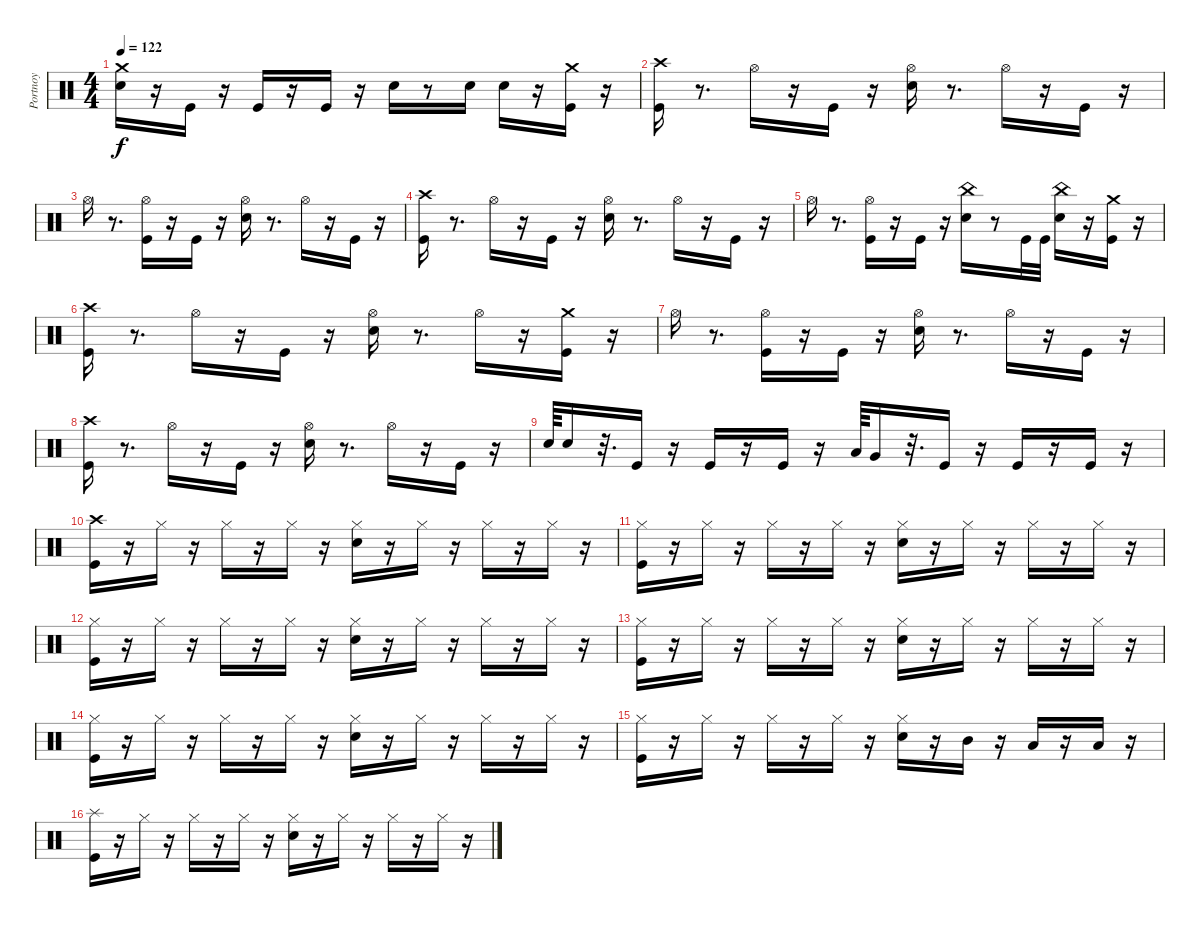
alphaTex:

\track ("Portnoy" "Portnoy") {instrument percussion}
\staff {score}
\articulation defaults
\ts (4 4)
\tempo 122
\clef neutral
\ks c
("Metronome (bell)" "Crash medium (hit)").16{dy f} r.16 "Kick (hit)".16 r.16 "Kick (hit)".16 r.16 "Kick (hit)".16 r.16 "Metronome (bell)".16 r.8 "Metronome (bell)".16 "Metronome (bell)".16 r.16 ("Crash medium (hit)" "Kick (hit)").16 r.16 |
("Kick (hit)" "Crash high (hit)").16 r.8{d} "Hi-Hat (open)".16 r.16 "Kick (hit)".16 r.16 ("Hi-Hat (open)" "Metronome (bell)").16 r.8{d} "Hi-Hat (open)".16 r.16 "Kick (hit)".16 r.16 |
"Hi-Hat (open)".16 r.8{d} ("Kick (hit)" "Hi-Hat (open)").16 r.16 "Kick (hit)".16 r.16 ("Metronome (bell)" "Hi-Hat (open)").16 r.8{d} "Hi-Hat (open)".16 r.16 "Kick (hit)".16 r.16 |
("Crash high (hit)" "Kick (hit)").16 r.8{d} "Hi-Hat (open)".16 r.16 "Kick (hit)".16 r.16 ("Metronome (bell)" "Hi-Hat (open)").16 r.8{d} "Hi-Hat (open)".16 r.16 "Kick (hit)".16 r.16 |
"Hi-Hat (open)".16 r.8{d} ("Kick (hit)" "Hi-Hat (open)").16 r.16 "Kick (hit)".16 r.16 ("Metronome (bell)" "China (hit)").16 r.8 "Kick (hit)".32 "Kick (hit)".32 ("China (hit)" "Metronome (bell)").16 r.16 ("Crash medium (hit)" "Kick (hit)").16 r.16 |
("Crash high (hit)" "Kick (hit)").16 r.8{d} "Hi-Hat (open)".16 r.16 "Kick (hit)".16 r.16 ("Hi-Hat (open)" "Metronome (bell)").16 r.8{d} "Hi-Hat (open)".16 r.16 ("Crash medium (hit)" "Kick (hit)").16 r.16 |
"Hi-Hat (open)".16 r.8{d} ("Hi-Hat (open)" "Kick (hit)").16 r.16 "Kick (hit)".16 r.16 ("Hi-Hat (open)" "Metronome (bell)").16 r.8{d} "Hi-Hat (open)".16 r.16 "Kick (hit)".16 r.16 |
("Kick (hit)" "Crash high (hit)").16 r.8{d} "Hi-Hat (open)".16 r.16 "Kick (hit)".16 r.16 ("Hi-Hat (open)" "Metronome (bell)").16 r.8{d} "Hi-Hat (open)".16 r.16 "Kick (hit)".16 r.16 |
"Metronome (bell)".64 "Metronome (bell)".16 r.32{d} "Kick (hit)".16 r.16 "Kick (hit)".16 r.16 "Kick (hit)".16 r.16 "Low Tom (hit)".64 "Very Low Tom (hit)".16 r.32{d} "Kick (hit)".16 r.16 "Kick (hit)".16 r.16 "Kick (hit)".16 r.16 |
("Crash high (hit)" "Kick (hit)").16 r.16 "Hi-Hat (closed)".16 r.16 "Hi-Hat (closed)".16 r.16 "Hi-Hat (closed)".16 r.16 ("Metronome (bell)" "Hi-Hat (closed)").16 r.16 "Hi-Hat (closed)".16 r.16 "Hi-Hat (closed)".16 r.16 "Hi-Hat (closed)".16 r.16 |
("Hi-Hat (closed)" "Kick (hit)").16 r.16 "Hi-Hat (closed)".16 r.16 "Hi-Hat (closed)".16 r.16 "Hi-Hat (closed)".16 r.16 ("Metronome (bell)" "Hi-Hat (closed)").16 r.16 "Hi-Hat (closed)".16 r.16 "Hi-Hat (closed)".16 r.16 "Hi-Hat (closed)".16 r.16 |
("Hi-Hat (closed)" "Kick (hit)").16 r.16 "Hi-Hat (closed)".16 r.16 "Hi-Hat (closed)".16 r.16 "Hi-Hat (closed)".16 r.16 ("Metronome (bell)" "Hi-Hat (closed)").16 r.16 "Hi-Hat (closed)".16 r.16 "Hi-Hat (closed)".16 r.16 "Hi-Hat (closed)".16 r.16 |
("Hi-Hat (closed)" "Kick (hit)").16 r.16 "Hi-Hat (closed)".16 r.16 "Hi-Hat (closed)".16 r.16 "Hi-Hat (closed)".16 r.16 ("Metronome (bell)" "Hi-Hat (closed)").16 r.16 "Hi-Hat (closed)".16 r.16 "Hi-Hat (closed)".16 r.16 "Hi-Hat (closed)".16 r.16 |
("Hi-Hat (closed)" "Kick (hit)").16 r.16 "Hi-Hat (closed)".16 r.16 "Hi-Hat (closed)".16 r.16 "Hi-Hat (closed)".16 r.16 ("Metronome (bell)" "Hi-Hat (closed)").16 r.16 "Hi-Hat (closed)".16 r.16 "Hi-Hat (closed)".16 r.16 "Hi-Hat (closed)".16 r.16 |
("Hi-Hat (closed)" "Kick (hit)").16 r.16 "Hi-Hat (closed)".16 r.16 "Hi-Hat (closed)".16 r.16 "Hi-Hat (closed)".16 r.16 ("Metronome (bell)" "Hi-Hat (closed)").16 r.16 "Mid Tom (hit)".16 r.16 "Low Tom (hit)".16 r.16 "Low Floor Tom (hit)".16 r.16 |
("Splash (hit)" "Kick (hit)").16 r.16 "Hi-Hat (closed)".16 r.16 "Hi-Hat (closed)".16 r.16 "Hi-Hat (closed)".16 r.16 ("Metronome (bell)" "Hi-Hat (closed)").16 r.16 "Hi-Hat (closed)".16 r.16 "Hi-Hat (closed)".16 r.16 "Hi-Hat (closed)".16 r.16
